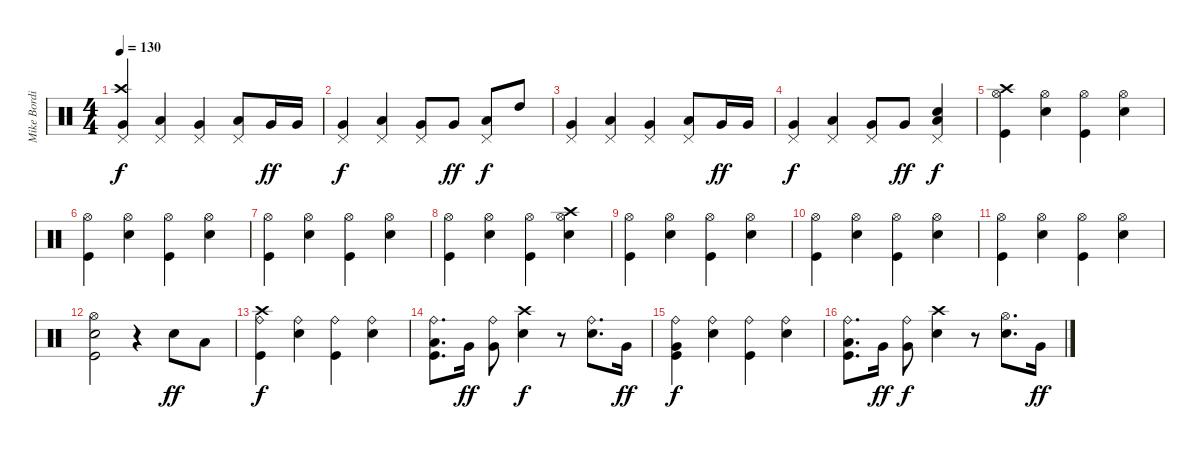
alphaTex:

\track ("Mike Bordin" "Mike Bordi") {instrument percussion}
\staff {score}
\articulation defaults
\ts (4 4)
\tempo 130
\clef neutral
\ks c
("Pedal Hi-Hat (hit)" "Crash high (hit)" "Very Low Tom (hit)").4{dy f} ("Pedal Hi-Hat (hit)" "Low Tom (hit)").4 ("Pedal Hi-Hat (hit)" "Very Low Tom (hit)").4 ("Pedal Hi-Hat (hit)" "Low Tom (hit)").8 "Very Low Tom (hit)".16{dy ff} "Very Low Tom (hit)".16 |
("Pedal Hi-Hat (hit)" "Very Low Tom (hit)").4{dy f} ("Pedal Hi-Hat (hit)" "Low Tom (hit)").4 ("Pedal Hi-Hat (hit)" "Very Low Tom (hit)").8 "Very Low Tom (hit)".8{dy ff} ("Pedal Hi-Hat (hit)" "Low Tom (hit)").8{dy f} "High Tom (hit)".8 |
("Pedal Hi-Hat (hit)" "Very Low Tom (hit)").4 ("Pedal Hi-Hat (hit)" "Low Tom (hit)").4 ("Pedal Hi-Hat (hit)" "Very Low Tom (hit)").4 ("Pedal Hi-Hat (hit)" "Low Tom (hit)").8 "Very Low Tom (hit)".16{dy ff} "Very Low Tom (hit)".16 |
("Pedal Hi-Hat (hit)" "Very Low Tom (hit)").4{dy f} ("Pedal Hi-Hat (hit)" "Low Tom (hit)").4 ("Pedal Hi-Hat (hit)" "Very Low Tom (hit)").8 "Very Low Tom (hit)".8{dy ff} ("Snare (hit) 2" "Pedal Hi-Hat (hit)" "Low Tom (hit)").4{dy f} |
("Kick (hit)" "Hi-Hat (open)" "Crash high (hit)").4 ("Snare (hit) 2" "Hi-Hat (open)").4 ("Kick (hit)" "Hi-Hat (open)").4 ("Snare (hit) 2" "Hi-Hat (open)").4 |
("Kick (hit)" "Hi-Hat (open)").4 ("Snare (hit) 2" "Hi-Hat (open)").4 ("Kick (hit)" "Hi-Hat (open)").4 ("Snare (hit) 2" "Hi-Hat (open)").4 |
("Kick (hit)" "Hi-Hat (open)").4 ("Snare (hit) 2" "Hi-Hat (open)").4 ("Kick (hit)" "Hi-Hat (open)").4 ("Snare (hit) 2" "Hi-Hat (open)").4 |
("Kick (hit)" "Hi-Hat (open)").4 ("Snare (hit) 2" "Hi-Hat (open)").4 ("Kick (hit)" "Hi-Hat (open)").4 ("Snare (hit) 2" "Hi-Hat (open)" "Crash high (hit)").4 |
("Kick (hit)" "Hi-Hat (open)").4 ("Snare (hit) 2" "Hi-Hat (open)").4 ("Kick (hit)" "Hi-Hat (open)").4 ("Snare (hit) 2" "Hi-Hat (open)").4 |
("Kick (hit)" "Hi-Hat (open)").4 ("Snare (hit) 2" "Hi-Hat (open)").4 ("Kick (hit)" "Hi-Hat (open)").4 ("Snare (hit) 2" "Hi-Hat (open)").4 |
("Kick (hit)" "Hi-Hat (open)").4 ("Snare (hit) 2" "Hi-Hat (open)").4 ("Kick (hit)" "Hi-Hat (open)").4 ("Snare (hit) 2" "Hi-Hat (open)").4 |
("Kick (hit)" "Snare (hit) 2" "Hi-Hat (open)").2 r.4 "Snare (hit) 2".8{dy ff} "Low Tom (hit)".8 |
("Kick (hit)" "Ride (bell)" "Crash high (hit)").4{dy f} ("Snare (hit) 2" "Ride (bell)").4 ("Kick (hit)" "Ride (bell)").4 ("Snare (hit) 2" "Ride (bell)").4 |
("Kick (hit)" "Ride (bell)" "Low Tom (hit)").8{d} "Very Low Tom (hit)".16{dy ff} ("Ride (bell)" "Very Low Tom (hit)").8 ("Snare (hit) 2" "Crash high (hit)").4{dy f} r.8 ("Snare (hit) 2" "Ride (bell)").8{d} "Very Low Tom (hit)".16{dy ff} |
("Kick (hit)" "Ride (bell)" "Very Low Tom (hit)").4{dy f} ("Snare (hit) 2" "Ride (bell)").4 ("Kick (hit)" "Ride (bell)").4 ("Snare (hit) 2" "Ride (bell)").4 |
("Kick (hit)" "Ride (bell)" "Low Tom (hit)").8{d} "Very Low Tom (hit)".16{dy ff} ("Ride (bell)" "Very Low Tom (hit)").8{dy f} ("Snare (hit) 2" "Crash high (hit)").4 r.8 ("Snare (hit) 2" "Hi-Hat (open)").8{d} "Very Low Tom (hit)".16{dy ff}
